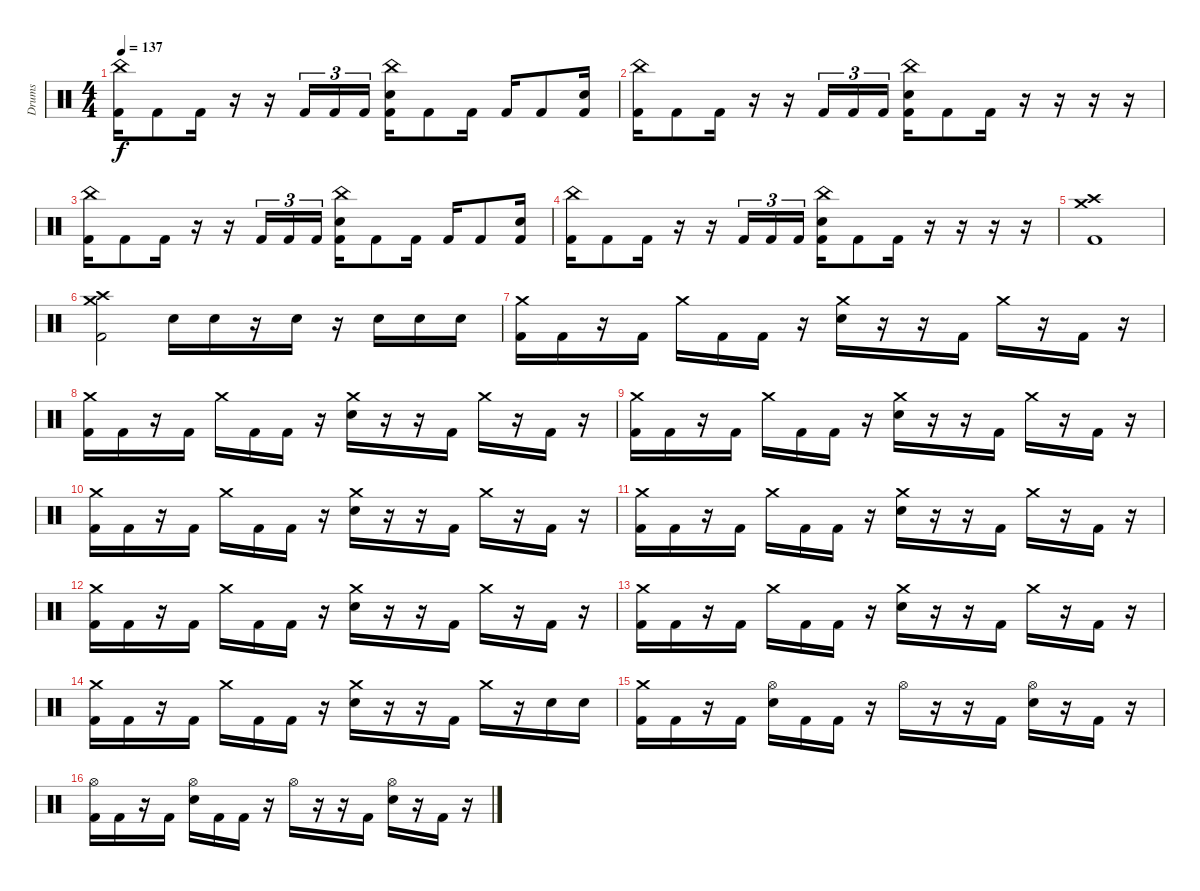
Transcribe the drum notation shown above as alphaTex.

\track ("Drums" "Drums") {instrument percussion}
\staff {score}
\articulation defaults
\ts (4 4)
\tempo 137
\clef neutral
\ks c
("China (hit)" "Kick (hit) 2").16{dy f} "Kick (hit) 2".8 "Kick (hit) 2".16 r.16 r.16 "Kick (hit) 2".16{tu (3 2)} "Kick (hit) 2".16{tu (3 2)} "Kick (hit) 2".16{tu (3 2)} ("China (hit)" "Electric Snare (hit)" "Kick (hit) 2").16 "Kick (hit) 2".8 "Kick (hit) 2".16 "Kick (hit) 2".16 "Kick (hit) 2".8 ("Electric Snare (hit)" "Kick (hit) 2").16 |
("China (hit)" "Kick (hit) 2").16 "Kick (hit) 2".8 "Kick (hit) 2".16 r.16 r.16 "Kick (hit) 2".16{tu (3 2)} "Kick (hit) 2".16{tu (3 2)} "Kick (hit) 2".16{tu (3 2)} ("China (hit)" "Electric Snare (hit)" "Kick (hit) 2").16 "Kick (hit) 2".8 "Kick (hit) 2".16 r.16 r.16 r.16 r.16 |
("China (hit)" "Kick (hit) 2").16 "Kick (hit) 2".8 "Kick (hit) 2".16 r.16 r.16 "Kick (hit) 2".16{tu (3 2)} "Kick (hit) 2".16{tu (3 2)} "Kick (hit) 2".16{tu (3 2)} ("China (hit)" "Electric Snare (hit)" "Kick (hit) 2").16 "Kick (hit) 2".8 "Kick (hit) 2".16 "Kick (hit) 2".16 "Kick (hit) 2".8 ("Electric Snare (hit)" "Kick (hit) 2").16 |
("China (hit)" "Kick (hit) 2").16 "Kick (hit) 2".8 "Kick (hit) 2".16 r.16 r.16 "Kick (hit) 2".16{tu (3 2)} "Kick (hit) 2".16{tu (3 2)} "Kick (hit) 2".16{tu (3 2)} ("China (hit)" "Electric Snare (hit)" "Kick (hit) 2").16 "Kick (hit) 2".8 "Kick (hit) 2".16 r.16 r.16 r.16 r.16 |
("Crash medium (hit)" "Crash high (hit)" "Kick (hit) 2").1 |
("Crash medium (hit)" "Crash high (hit)" "Kick (hit) 2").2 "Electric Snare (hit)".16 "Electric Snare (hit)".16 r.16 "Electric Snare (hit)".16 r.16 "Electric Snare (hit)".16 "Electric Snare (hit)".16 "Electric Snare (hit)".16 |
("Crash medium (hit)" "Kick (hit) 2").16 "Kick (hit) 2".16 r.16 "Kick (hit) 2".16 "Crash medium (hit)".16 "Kick (hit) 2".16 "Kick (hit) 2".16 r.16 ("Crash medium (hit)" "Electric Snare (hit)").16 r.16 r.16 "Kick (hit) 2".16 "Crash medium (hit)".16 r.16 "Kick (hit) 2".16 r.16 |
("Crash medium (hit)" "Kick (hit) 2").16 "Kick (hit) 2".16 r.16 "Kick (hit) 2".16 "Crash medium (hit)".16 "Kick (hit) 2".16 "Kick (hit) 2".16 r.16 ("Crash medium (hit)" "Electric Snare (hit)").16 r.16 r.16 "Kick (hit) 2".16 "Crash medium (hit)".16 r.16 "Kick (hit) 2".16 r.16 |
("Crash medium (hit)" "Kick (hit) 2").16 "Kick (hit) 2".16 r.16 "Kick (hit) 2".16 "Crash medium (hit)".16 "Kick (hit) 2".16 "Kick (hit) 2".16 r.16 ("Crash medium (hit)" "Electric Snare (hit)").16 r.16 r.16 "Kick (hit) 2".16 "Crash medium (hit)".16 r.16 "Kick (hit) 2".16 r.16 |
("Crash medium (hit)" "Kick (hit) 2").16 "Kick (hit) 2".16 r.16 "Kick (hit) 2".16 "Crash medium (hit)".16 "Kick (hit) 2".16 "Kick (hit) 2".16 r.16 ("Crash medium (hit)" "Electric Snare (hit)").16 r.16 r.16 "Kick (hit) 2".16 "Crash medium (hit)".16 r.16 "Kick (hit) 2".16 r.16 |
("Crash medium (hit)" "Kick (hit) 2").16 "Kick (hit) 2".16 r.16 "Kick (hit) 2".16 "Crash medium (hit)".16 "Kick (hit) 2".16 "Kick (hit) 2".16 r.16 ("Crash medium (hit)" "Electric Snare (hit)").16 r.16 r.16 "Kick (hit) 2".16 "Crash medium (hit)".16 r.16 "Kick (hit) 2".16 r.16 |
("Crash medium (hit)" "Kick (hit) 2").16 "Kick (hit) 2".16 r.16 "Kick (hit) 2".16 "Crash medium (hit)".16 "Kick (hit) 2".16 "Kick (hit) 2".16 r.16 ("Crash medium (hit)" "Electric Snare (hit)").16 r.16 r.16 "Kick (hit) 2".16 "Crash medium (hit)".16 r.16 "Kick (hit) 2".16 r.16 |
("Crash medium (hit)" "Kick (hit) 2").16 "Kick (hit) 2".16 r.16 "Kick (hit) 2".16 "Crash medium (hit)".16 "Kick (hit) 2".16 "Kick (hit) 2".16 r.16 ("Crash medium (hit)" "Electric Snare (hit)").16 r.16 r.16 "Kick (hit) 2".16 "Crash medium (hit)".16 r.16 "Kick (hit) 2".16 r.16 |
("Crash medium (hit)" "Kick (hit) 2").16 "Kick (hit) 2".16 r.16 "Kick (hit) 2".16 "Crash medium (hit)".16 "Kick (hit) 2".16 "Kick (hit) 2".16 r.16 ("Crash medium (hit)" "Electric Snare (hit)").16 r.16 r.16 "Kick (hit) 2".16 "Crash medium (hit)".16 r.16 "Electric Snare (hit)".16 "Electric Snare (hit)".16 |
("Crash medium (hit)" "Kick (hit) 2").16 "Kick (hit) 2".16 r.16 "Kick (hit) 2".16 ("Hi-Hat (open)" "Electric Snare (hit)").16 "Kick (hit) 2".16 "Kick (hit) 2".16 r.16 "Hi-Hat (open)".16 r.16 r.16 "Kick (hit) 2".16 ("Hi-Hat (open)" "Electric Snare (hit)").16 r.16 "Kick (hit) 2".16 r.16 |
("Hi-Hat (open)" "Kick (hit) 2").16 "Kick (hit) 2".16 r.16 "Kick (hit) 2".16 ("Hi-Hat (open)" "Electric Snare (hit)").16 "Kick (hit) 2".16 "Kick (hit) 2".16 r.16 "Hi-Hat (open)".16 r.16 r.16 "Kick (hit) 2".16 ("Hi-Hat (open)" "Electric Snare (hit)").16 r.16 "Kick (hit) 2".16 r.16
